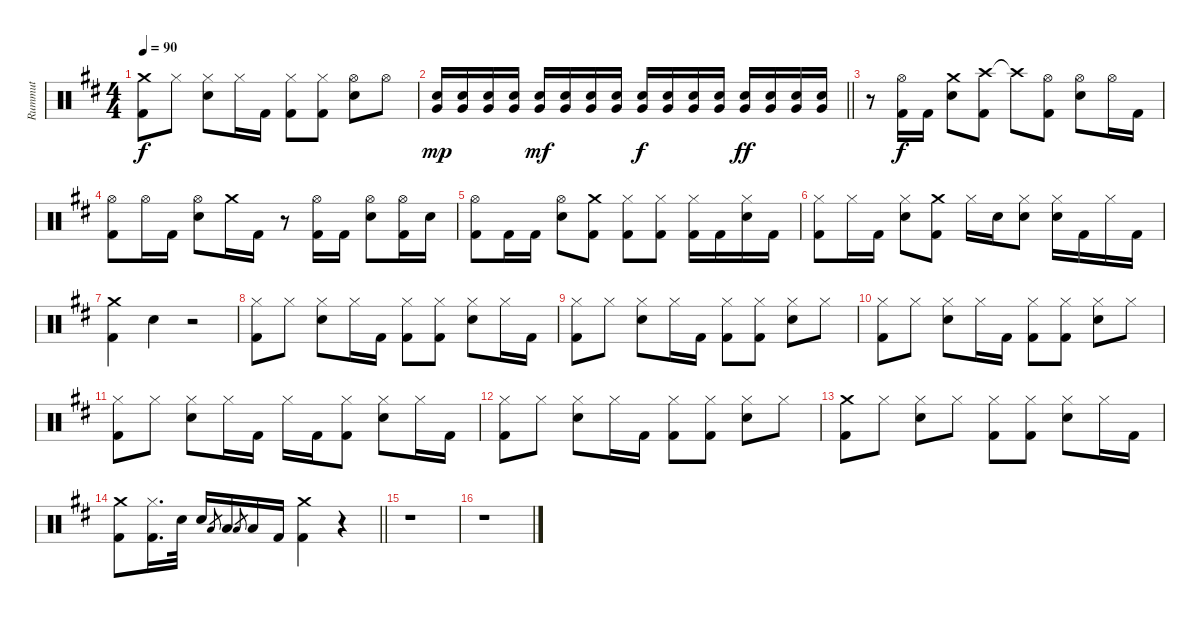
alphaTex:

\track ("Rummut" "Rummut") {instrument percussion}
\staff {score}
\articulation defaults
\ts (4 4)
\tempo 90
\clef neutral
\ks d
("Crash medium (hit)" "Kick (hit) 2").8{dy f} "Hi-Hat (closed)".8 ("Hi-Hat (closed)" "Snare (hit) 2").8 "Hi-Hat (closed)".16 "Kick (hit) 2".16 ("Hi-Hat (closed)" "Kick (hit) 2").8 ("Hi-Hat (closed)" "Kick (hit) 2").8 ("Hi-Hat (open)" "Snare (hit) 2").8 "Hi-Hat (open)".8 |
\barLineRight lightlight
("Snare (hit) 2" "Very Low Tom (hit)").16{dy mp} ("Snare (hit) 2" "Very Low Tom (hit)").16 ("Snare (hit) 2" "Very Low Tom (hit)").16 ("Snare (hit) 2" "Very Low Tom (hit)").16 ("Snare (hit) 2" "Very Low Tom (hit)").16{dy mf} ("Snare (hit) 2" "Very Low Tom (hit)").16 ("Snare (hit) 2" "Very Low Tom (hit)").16 ("Snare (hit) 2" "Very Low Tom (hit)").16 ("Snare (hit) 2" "Very Low Tom (hit)").16{dy f} ("Snare (hit) 2" "Very Low Tom (hit)").16 ("Snare (hit) 2" "Very Low Tom (hit)").16 ("Snare (hit) 2" "Very Low Tom (hit)").16 ("Snare (hit) 2" "Very Low Tom (hit)").16{dy ff} ("Snare (hit) 2" "Very Low Tom (hit)").16 ("Snare (hit) 2" "Very Low Tom (hit)").16 ("Snare (hit) 2" "Very Low Tom (hit)").16 |
r.8 ("Hi-Hat (open)" "Kick (hit) 2").16{dy f} "Kick (hit) 2".16 ("Crash medium (hit)" "Snare (hit) 2").8 ("Crash high (hit)" "Kick (hit) 2").8 "Crash high (hit)"{t}.8 ("Hi-Hat (open)" "Kick (hit) 2").8 ("Hi-Hat (open)" "Snare (hit) 2").8 "Hi-Hat (open)".16 "Kick (hit) 2".16 |
("Hi-Hat (open)" "Kick (hit) 2").8 "Hi-Hat (open)".16 "Kick (hit) 2".16 ("Hi-Hat (open)" "Snare (hit) 2").8 "Crash medium (hit)".16 "Kick (hit) 2".16 r.8 ("Hi-Hat (open)" "Kick (hit) 2").16 "Kick (hit) 2".16 ("Hi-Hat (open)" "Snare (hit) 2").8 ("Hi-Hat (open)" "Kick (hit) 2").16 "Snare (hit) 2".16 |
("Hi-Hat (open)" "Kick (hit) 2").8 "Kick (hit) 2".16 "Kick (hit) 2".16 ("Hi-Hat (open)" "Snare (hit) 2").8 ("Crash medium (hit)" "Kick (hit) 2").8 ("Hi-Hat (closed)" "Kick (hit) 2").8 ("Hi-Hat (closed)" "Kick (hit) 2").8 ("Hi-Hat (closed)" "Kick (hit) 2").16 "Kick (hit) 2".16 ("Hi-Hat (closed)" "Snare (hit) 2").16 "Kick (hit) 2".16 |
("Hi-Hat (closed)" "Kick (hit) 2").8 "Hi-Hat (closed)".16 "Kick (hit) 2".16 ("Hi-Hat (closed)" "Snare (hit) 2").8 ("Crash medium (hit)" "Kick (hit) 2").8 "Hi-Hat (closed)".16 "Snare (hit) 2".16 ("Hi-Hat (closed)" "Snare (hit) 2").8 ("Hi-Hat (closed)" "Snare (hit) 2").16 "Kick (hit) 2".16 "Hi-Hat (closed)".16 "Kick (hit) 2".16 |
("Crash medium (hit)" "Kick (hit) 2").4 "Snare (hit) 2".4 r.2 |
("Hi-Hat (closed)" "Kick (hit) 2").8 "Hi-Hat (closed)".8 ("Hi-Hat (closed)" "Snare (hit) 2").8 "Hi-Hat (closed)".16 "Kick (hit) 2".16 ("Hi-Hat (closed)" "Kick (hit) 2").8 ("Hi-Hat (closed)" "Kick (hit) 2").8 ("Hi-Hat (closed)" "Snare (hit) 2").8 "Hi-Hat (closed)".16 "Kick (hit) 2".16 |
("Hi-Hat (closed)" "Kick (hit) 2").8 "Hi-Hat (closed)".8 ("Hi-Hat (closed)" "Snare (hit) 2").8 "Hi-Hat (closed)".16 "Kick (hit) 2".16 ("Hi-Hat (closed)" "Kick (hit) 2").8 ("Hi-Hat (closed)" "Kick (hit) 2").8 ("Hi-Hat (closed)" "Snare (hit) 2").8 "Hi-Hat (closed)".8 |
("Hi-Hat (closed)" "Kick (hit) 2").8 "Hi-Hat (closed)".8 ("Hi-Hat (closed)" "Snare (hit) 2").8 "Hi-Hat (closed)".16 "Kick (hit) 2".16 ("Hi-Hat (closed)" "Kick (hit) 2").8 ("Hi-Hat (closed)" "Kick (hit) 2").8 ("Hi-Hat (closed)" "Snare (hit) 2").8 "Hi-Hat (closed)".8 |
("Hi-Hat (closed)" "Kick (hit) 2").8 "Hi-Hat (closed)".8 ("Hi-Hat (closed)" "Snare (hit) 2").8 "Hi-Hat (closed)".16 "Kick (hit) 2".16 "Hi-Hat (closed)".16 "Kick (hit) 2".16 ("Hi-Hat (closed)" "Kick (hit) 2").8 ("Hi-Hat (closed)" "Snare (hit) 2").8 "Hi-Hat (closed)".16 "Kick (hit) 2".16 |
("Hi-Hat (closed)" "Kick (hit) 2").8 "Hi-Hat (closed)".8 ("Hi-Hat (closed)" "Snare (hit) 2").8 "Hi-Hat (closed)".16 "Kick (hit) 2".16 ("Hi-Hat (closed)" "Kick (hit) 2").8 ("Hi-Hat (closed)" "Kick (hit) 2").8 ("Hi-Hat (closed)" "Snare (hit) 2").8 "Hi-Hat (closed)".8 |
("Crash medium (hit)" "Kick (hit) 2").8 "Hi-Hat (closed)".8 ("Hi-Hat (closed)" "Snare (hit) 2").8 "Hi-Hat (closed)".8 ("Hi-Hat (closed)" "Kick (hit) 2").8 ("Hi-Hat (closed)" "Kick (hit) 2").8 ("Hi-Hat (closed)" "Snare (hit) 2").8 "Hi-Hat (closed)".16 "Kick (hit) 2".16 |
\barLineRight lightlight
("Crash medium (hit)" "Kick (hit) 2").8 ("Hi-Hat (closed)" "Kick (hit) 2").16{d} "Snare (hit) 2".32 "Snare (hit) 2".16 "Low Tom (hit)".8{gr} "Low Tom (hit)".16 "Low Tom (hit)".8{gr} "Low Tom (hit)".16 "Kick (hit) 2".16 ("Crash medium (hit)" "Kick (hit) 2").4 r.4 |
r.1 |
r.1
